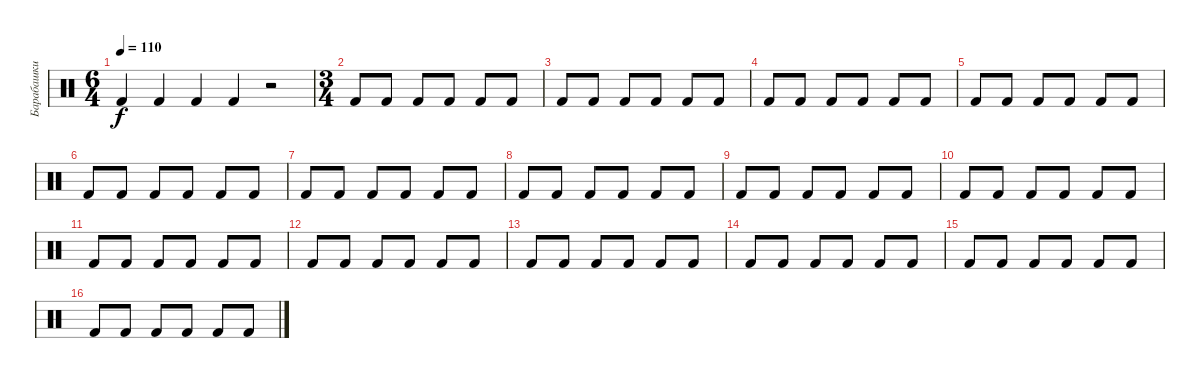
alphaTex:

\track ("Барабашки low" "Барабашки ") {instrument percussion}
\staff {score}
\articulation defaults
\ts (6 4)
\tempo 110
\clef neutral
\ks c "Kick (hit) 2".4{dy f} "Kick (hit) 2".4 "Kick (hit) 2".4 "Kick (hit) 2".4
r.2 |
\ts (3 4)
"Kick (hit) 2".8 "Kick (hit) 2".8 "Kick (hit) 2".8 "Kick (hit) 2".8 "Kick (hit) 2".8 "Kick (hit) 2".8 |
"Kick (hit) 2".8 "Kick (hit) 2".8 "Kick (hit) 2".8 "Kick (hit) 2".8 "Kick (hit) 2".8 "Kick (hit) 2".8 |
"Kick (hit) 2".8 "Kick (hit) 2".8 "Kick (hit) 2".8 "Kick (hit) 2".8 "Kick (hit) 2".8 "Kick (hit) 2".8 |
"Kick (hit) 2".8 "Kick (hit) 2".8 "Kick (hit) 2".8 "Kick (hit) 2".8 "Kick (hit) 2".8 "Kick (hit) 2".8 |
"Kick (hit) 2".8 "Kick (hit) 2".8 "Kick (hit) 2".8 "Kick (hit) 2".8 "Kick (hit) 2".8 "Kick (hit) 2".8 |
"Kick (hit) 2".8 "Kick (hit) 2".8 "Kick (hit) 2".8 "Kick (hit) 2".8 "Kick (hit) 2".8 "Kick (hit) 2".8 |
"Kick (hit) 2".8 "Kick (hit) 2".8 "Kick (hit) 2".8 "Kick (hit) 2".8 "Kick (hit) 2".8 "Kick (hit) 2".8 |
"Kick (hit) 2".8 "Kick (hit) 2".8 "Kick (hit) 2".8 "Kick (hit) 2".8 "Kick (hit) 2".8 "Kick (hit) 2".8 |
"Kick (hit) 2".8 "Kick (hit) 2".8 "Kick (hit) 2".8 "Kick (hit) 2".8 "Kick (hit) 2".8 "Kick (hit) 2".8 |
"Kick (hit) 2".8 "Kick (hit) 2".8 "Kick (hit) 2".8 "Kick (hit) 2".8 "Kick (hit) 2".8 "Kick (hit) 2".8 |
"Kick (hit) 2".8 "Kick (hit) 2".8 "Kick (hit) 2".8 "Kick (hit) 2".8 "Kick (hit) 2".8 "Kick (hit) 2".8 |
"Kick (hit) 2".8 "Kick (hit) 2".8 "Kick (hit) 2".8 "Kick (hit) 2".8 "Kick (hit) 2".8 "Kick (hit) 2".8 |
"Kick (hit) 2".8 "Kick (hit) 2".8 "Kick (hit) 2".8 "Kick (hit) 2".8 "Kick (hit) 2".8 "Kick (hit) 2".8 |
"Kick (hit) 2".8 "Kick (hit) 2".8 "Kick (hit) 2".8 "Kick (hit) 2".8 "Kick (hit) 2".8 "Kick (hit) 2".8 |
"Kick (hit) 2".8 "Kick (hit) 2".8 "Kick (hit) 2".8 "Kick (hit) 2".8 "Kick (hit) 2".8 "Kick (hit) 2".8
